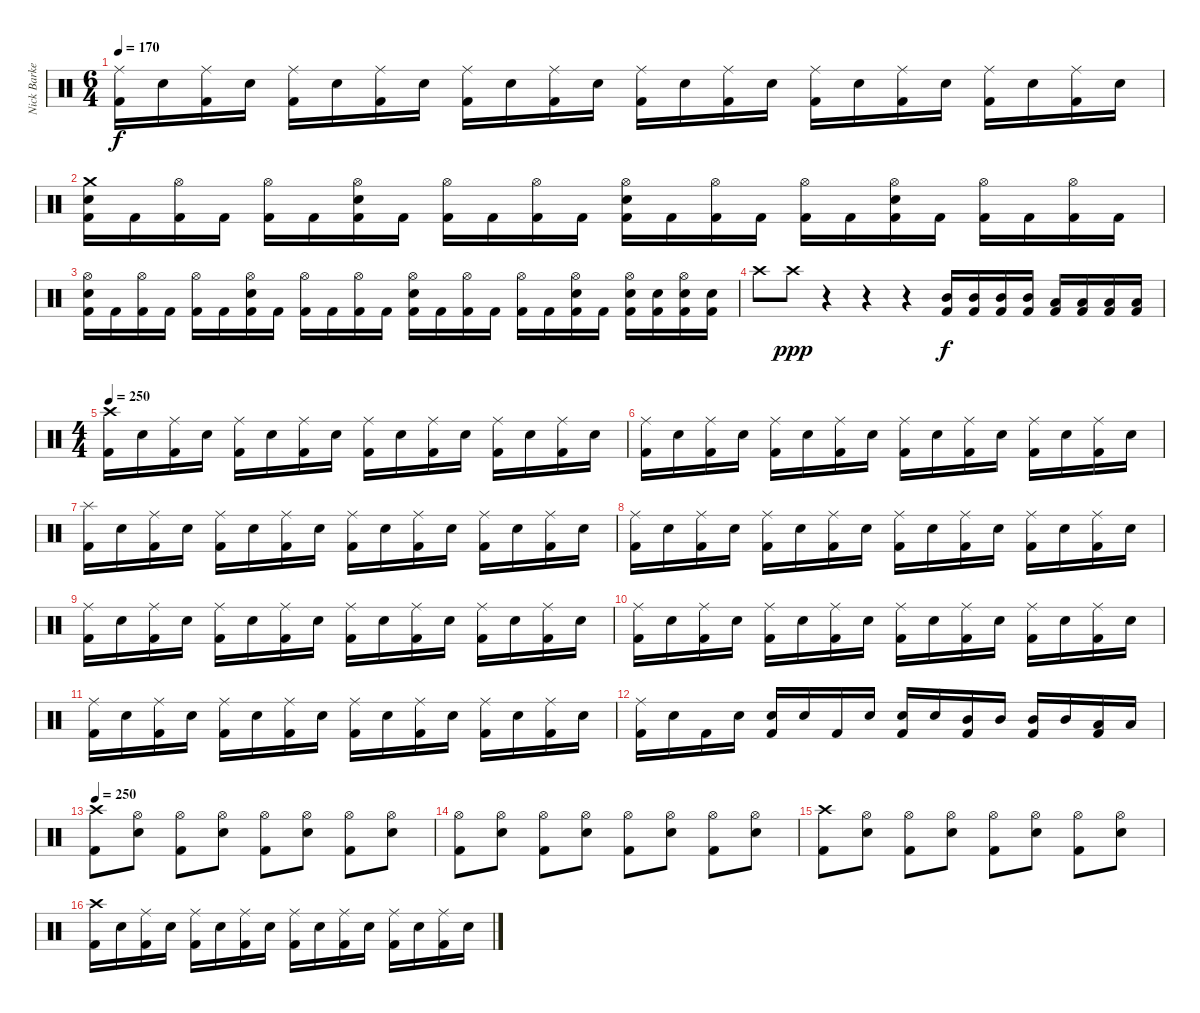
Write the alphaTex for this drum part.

\track ("Nick Barker" "Nick Barke") {instrument percussion}
\staff {score}
\articulation defaults
\ts (6 4)
\tempo 170
\clef neutral
\ks c
("Ride (middle)" "Kick (hit) 2").16{dy f} "Electric Snare (hit)".16 ("Ride (middle)" "Kick (hit) 2").16 "Electric Snare (hit)".16 ("Ride (middle)" "Kick (hit) 2").16 "Electric Snare (hit)".16 ("Ride (middle)" "Kick (hit) 2").16 "Electric Snare (hit)".16 ("Ride (middle)" "Kick (hit) 2").16 "Electric Snare (hit)".16 ("Ride (middle)" "Kick (hit) 2").16 "Electric Snare (hit)".16 ("Ride (middle)" "Kick (hit) 2").16 "Electric Snare (hit)".16 ("Ride (middle)" "Kick (hit) 2").16 "Electric Snare (hit)".16 ("Ride (middle)" "Kick (hit) 2").16 "Electric Snare (hit)".16 ("Ride (middle)" "Kick (hit) 2").16 "Electric Snare (hit)".16 ("Ride (middle)" "Kick (hit) 2").16 "Electric Snare (hit)".16 ("Ride (middle)" "Kick (hit) 2").16 "Electric Snare (hit)".16 |
("Crash medium (hit)" "Electric Snare (hit)" "Kick (hit) 2").16 "Kick (hit) 2".16 ("Hi-Hat (open)" "Kick (hit) 2").16 "Kick (hit) 2".16 ("Hi-Hat (open)" "Kick (hit) 2").16 "Kick (hit) 2".16 ("Hi-Hat (open)" "Electric Snare (hit)" "Kick (hit) 2").16 "Kick (hit) 2".16 ("Hi-Hat (open)" "Kick (hit) 2").16 "Kick (hit) 2".16 ("Hi-Hat (open)" "Kick (hit) 2").16 "Kick (hit) 2".16 ("Hi-Hat (open)" "Electric Snare (hit)" "Kick (hit) 2").16 "Kick (hit) 2".16 ("Hi-Hat (open)" "Kick (hit) 2").16 "Kick (hit) 2".16 ("Hi-Hat (open)" "Kick (hit) 2").16 "Kick (hit) 2".16 ("Hi-Hat (open)" "Electric Snare (hit)" "Kick (hit) 2").16 "Kick (hit) 2".16 ("Hi-Hat (open)" "Kick (hit) 2").16 "Kick (hit) 2".16 ("Hi-Hat (open)" "Kick (hit) 2").16 "Kick (hit) 2".16 |
("Hi-Hat (open)" "Electric Snare (hit)" "Kick (hit) 2").16 "Kick (hit) 2".16 ("Hi-Hat (open)" "Kick (hit) 2").16 "Kick (hit) 2".16 ("Hi-Hat (open)" "Kick (hit) 2").16 "Kick (hit) 2".16 ("Hi-Hat (open)" "Electric Snare (hit)" "Kick (hit) 2").16 "Kick (hit) 2".16 ("Hi-Hat (open)" "Kick (hit) 2").16 "Kick (hit) 2".16 ("Hi-Hat (open)" "Kick (hit) 2").16 "Kick (hit) 2".16 ("Hi-Hat (open)" "Electric Snare (hit)" "Kick (hit) 2").16 "Kick (hit) 2".16 ("Hi-Hat (open)" "Kick (hit) 2").16 "Kick (hit) 2".16 ("Hi-Hat (open)" "Kick (hit) 2").16 "Kick (hit) 2".16 ("Hi-Hat (open)" "Electric Snare (hit)" "Kick (hit) 2").16 "Kick (hit) 2".16 ("Hi-Hat (open)" "Electric Snare (hit)" "Kick (hit) 2").16 ("Electric Snare (hit)" "Kick (hit) 2").16 ("Hi-Hat (open)" "Electric Snare (hit)" "Kick (hit) 2").16 ("Electric Snare (hit)" "Kick (hit) 2").16 |
"Crash high (hit)"{pm}.8 "Crash high (hit)".8{dy ppp volume 0} r.4 r.4 r.4{volume 16} ("Mid Tom (hit)" "Kick (hit) 2").16{dy f} ("Mid Tom (hit)" "Kick (hit) 2").16 ("Mid Tom (hit)" "Kick (hit) 2").16 ("Mid Tom (hit)" "Kick (hit) 2").16 ("Low Tom (hit)" "Kick (hit) 2").16 ("Low Tom (hit)" "Kick (hit) 2").16 ("Low Tom (hit)" "Kick (hit) 2").16 ("Low Tom (hit)" "Kick (hit) 2").16 |
\ts (4 4)
\tempo 250
("Crash high (hit)" "Kick (hit) 2").16 "Electric Snare (hit)".16 ("Ride (middle)" "Kick (hit) 2").16 "Electric Snare (hit)".16 ("Ride (middle)" "Kick (hit) 2").16 "Electric Snare (hit)".16 ("Ride (middle)" "Kick (hit) 2").16 "Electric Snare (hit)".16 ("Ride (middle)" "Kick (hit) 2").16 "Electric Snare (hit)".16 ("Ride (middle)" "Kick (hit) 2").16 "Electric Snare (hit)".16 ("Ride (middle)" "Kick (hit) 2").16 "Electric Snare (hit)".16 ("Ride (middle)" "Kick (hit) 2").16 "Electric Snare (hit)".16 |
("Ride (middle)" "Kick (hit) 2").16 "Electric Snare (hit)".16 ("Ride (middle)" "Kick (hit) 2").16 "Electric Snare (hit)".16 ("Ride (middle)" "Kick (hit) 2").16 "Electric Snare (hit)".16 ("Ride (middle)" "Kick (hit) 2").16 "Electric Snare (hit)".16 ("Ride (middle)" "Kick (hit) 2").16 "Electric Snare (hit)".16 ("Ride (middle)" "Kick (hit) 2").16 "Electric Snare (hit)".16 ("Ride (middle)" "Kick (hit) 2").16 "Electric Snare (hit)".16 ("Ride (middle)" "Kick (hit) 2").16 "Electric Snare (hit)".16 |
("Splash (hit)" "Kick (hit) 2").16 "Electric Snare (hit)".16 ("Ride (middle)" "Kick (hit) 2").16 "Electric Snare (hit)".16 ("Ride (middle)" "Kick (hit) 2").16 "Electric Snare (hit)".16 ("Ride (middle)" "Kick (hit) 2").16 "Electric Snare (hit)".16 ("Ride (middle)" "Kick (hit) 2").16 "Electric Snare (hit)".16 ("Ride (middle)" "Kick (hit) 2").16 "Electric Snare (hit)".16 ("Ride (middle)" "Kick (hit) 2").16 "Electric Snare (hit)".16 ("Ride (middle)" "Kick (hit) 2").16 "Electric Snare (hit)".16 |
("Ride (middle)" "Kick (hit) 2").16 "Electric Snare (hit)".16 ("Ride (middle)" "Kick (hit) 2").16 "Electric Snare (hit)".16 ("Ride (middle)" "Kick (hit) 2").16 "Electric Snare (hit)".16 ("Ride (middle)" "Kick (hit) 2").16 "Electric Snare (hit)".16 ("Ride (middle)" "Kick (hit) 2").16 "Electric Snare (hit)".16 ("Ride (middle)" "Kick (hit) 2").16 "Electric Snare (hit)".16 ("Ride (middle)" "Kick (hit) 2").16 "Electric Snare (hit)".16 ("Ride (middle)" "Kick (hit) 2").16 "Electric Snare (hit)".16 |
("Ride (middle)" "Kick (hit) 2").16 "Electric Snare (hit)".16 ("Ride (middle)" "Kick (hit) 2").16 "Electric Snare (hit)".16 ("Ride (middle)" "Kick (hit) 2").16 "Electric Snare (hit)".16 ("Ride (middle)" "Kick (hit) 2").16 "Electric Snare (hit)".16 ("Ride (middle)" "Kick (hit) 2").16 "Electric Snare (hit)".16 ("Ride (middle)" "Kick (hit) 2").16 "Electric Snare (hit)".16 ("Ride (middle)" "Kick (hit) 2").16 "Electric Snare (hit)".16 ("Ride (middle)" "Kick (hit) 2").16 "Electric Snare (hit)".16 |
("Ride (middle)" "Kick (hit) 2").16 "Electric Snare (hit)".16 ("Ride (middle)" "Kick (hit) 2").16 "Electric Snare (hit)".16 ("Ride (middle)" "Kick (hit) 2").16 "Electric Snare (hit)".16 ("Ride (middle)" "Kick (hit) 2").16 "Electric Snare (hit)".16 ("Ride (middle)" "Kick (hit) 2").16 "Electric Snare (hit)".16 ("Ride (middle)" "Kick (hit) 2").16 "Electric Snare (hit)".16 ("Ride (middle)" "Kick (hit) 2").16 "Electric Snare (hit)".16 ("Ride (middle)" "Kick (hit) 2").16 "Electric Snare (hit)".16 |
("Ride (middle)" "Kick (hit) 2").16 "Electric Snare (hit)".16 ("Ride (middle)" "Kick (hit) 2").16 "Electric Snare (hit)".16 ("Ride (middle)" "Kick (hit) 2").16 "Electric Snare (hit)".16 ("Ride (middle)" "Kick (hit) 2").16 "Electric Snare (hit)".16 ("Ride (middle)" "Kick (hit) 2").16 "Electric Snare (hit)".16 ("Ride (middle)" "Kick (hit) 2").16 "Electric Snare (hit)".16 ("Ride (middle)" "Kick (hit) 2").16 "Electric Snare (hit)".16 ("Ride (middle)" "Kick (hit) 2").16 "Electric Snare (hit)".16 |
("Ride (middle)" "Kick (hit) 2").16 "Electric Snare (hit)".16 "Kick (hit) 2".16 "Electric Snare (hit)".16 ("Electric Snare (hit)" "Kick (hit) 2").16 "Electric Snare (hit)".16 "Kick (hit) 2".16 "Electric Snare (hit)".16 ("Electric Snare (hit)" "Kick (hit) 2").16 "Electric Snare (hit)".16 ("Mid Tom (hit)" "Kick (hit) 2").16 "Mid Tom (hit)".16 ("Mid Tom (hit)" "Kick (hit) 2").16 "Mid Tom (hit)".16 ("Low Tom (hit)" "Kick (hit) 2").16 "Low Tom (hit)".16 |
\tempo 250
("Crash high (hit)" "Kick (hit) 2").8 ("Hi-Hat (open)" "Electric Snare (hit)").8 ("Hi-Hat (open)" "Kick (hit) 2").8 ("Hi-Hat (open)" "Electric Snare (hit)").8 ("Hi-Hat (open)" "Kick (hit) 2").8 ("Hi-Hat (open)" "Electric Snare (hit)").8 ("Hi-Hat (open)" "Kick (hit) 2").8 ("Hi-Hat (open)" "Electric Snare (hit)").8 |
("Hi-Hat (open)" "Kick (hit) 2").8 ("Hi-Hat (open)" "Electric Snare (hit)").8 ("Hi-Hat (open)" "Kick (hit) 2").8 ("Hi-Hat (open)" "Electric Snare (hit)").8 ("Hi-Hat (open)" "Kick (hit) 2").8 ("Hi-Hat (open)" "Electric Snare (hit)").8 ("Hi-Hat (open)" "Kick (hit) 2").8 ("Hi-Hat (open)" "Electric Snare (hit)").8 |
("Crash high (hit)" "Kick (hit) 2").8 ("Hi-Hat (open)" "Electric Snare (hit)").8 ("Hi-Hat (open)" "Kick (hit) 2").8 ("Hi-Hat (open)" "Electric Snare (hit)").8 ("Hi-Hat (open)" "Kick (hit) 2").8 ("Hi-Hat (open)" "Electric Snare (hit)").8 ("Hi-Hat (open)" "Kick (hit) 2").8 ("Hi-Hat (open)" "Electric Snare (hit)").8 |
("Crash high (hit)" "Kick (hit) 2").16 "Electric Snare (hit)".16 ("Ride (middle)" "Kick (hit) 2").16 "Electric Snare (hit)".16 ("Ride (middle)" "Kick (hit) 2").16 "Electric Snare (hit)".16 ("Ride (middle)" "Kick (hit) 2").16 "Electric Snare (hit)".16 ("Ride (middle)" "Kick (hit) 2").16 "Electric Snare (hit)".16 ("Ride (middle)" "Kick (hit) 2").16 "Electric Snare (hit)".16 ("Ride (middle)" "Kick (hit) 2").16 "Electric Snare (hit)".16 ("Ride (middle)" "Kick (hit) 2").16 "Electric Snare (hit)".16
